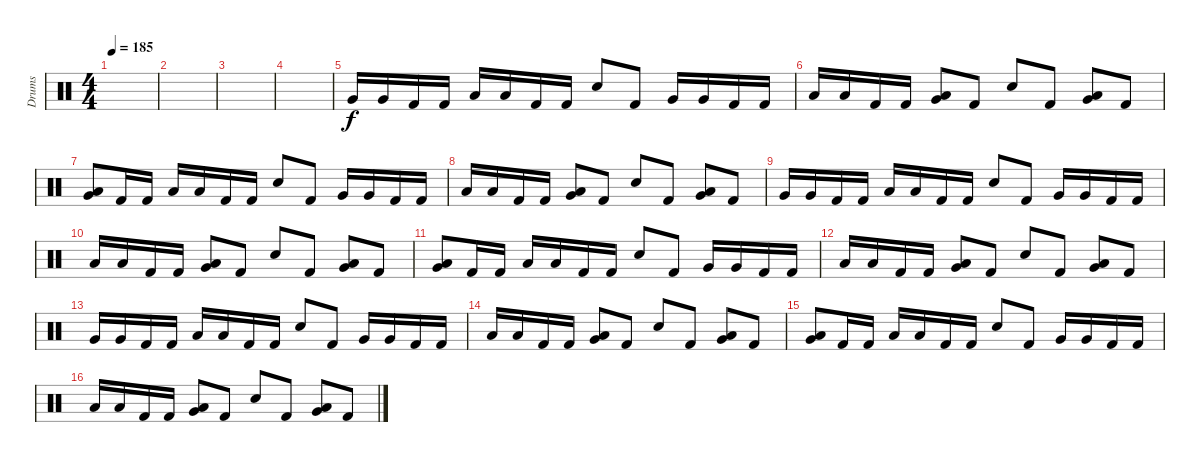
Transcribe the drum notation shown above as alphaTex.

\track ("Drums" "Drums") {instrument percussion}
\staff {score}
\articulation defaults
\ts (4 4)
\tempo 185
\clef neutral
\ks c
|
|
|
|
"Very Low Tom (hit)".16 "Very Low Tom (hit)".16 "Kick (hit) 2".16 "Kick (hit) 2".16 "Low Floor Tom (hit)".16 "Low Floor Tom (hit)".16 "Kick (hit) 2".16 "Kick (hit) 2".16 "Snare (hit) 2".8 "Kick (hit) 2".8 "Very Low Tom (hit)".16 "Very Low Tom (hit)".16 "Kick (hit) 2".16 "Kick (hit) 2".16 |
"Low Floor Tom (hit)".16 "Low Floor Tom (hit)".16 "Kick (hit) 2".16 "Kick (hit) 2".16 ("Very Low Tom (hit)" "Low Floor Tom (hit)").8 "Kick (hit) 2".8 "Snare (hit) 2".8 "Kick (hit) 2".8 ("Low Floor Tom (hit)" "Very Low Tom (hit)").8 "Kick (hit) 2".8 |
("Low Floor Tom (hit)" "Very Low Tom (hit)").8 "Kick (hit) 2".16 "Kick (hit) 2".16 "Low Floor Tom (hit)".16 "Low Floor Tom (hit)".16 "Kick (hit) 2".16 "Kick (hit) 2".16 "Snare (hit) 2".8 "Kick (hit) 2".8 "Very Low Tom (hit)".16 "Very Low Tom (hit)".16 "Kick (hit) 2".16 "Kick (hit) 2".16 |
"Low Floor Tom (hit)".16 "Low Floor Tom (hit)".16 "Kick (hit) 2".16 "Kick (hit) 2".16 ("Very Low Tom (hit)" "Low Floor Tom (hit)").8 "Kick (hit) 2".8 "Snare (hit) 2".8 "Kick (hit) 2".8 ("Low Floor Tom (hit)" "Very Low Tom (hit)").8 "Kick (hit) 2".8 |
"Very Low Tom (hit)".16 "Very Low Tom (hit)".16 "Kick (hit) 2".16 "Kick (hit) 2".16 "Low Floor Tom (hit)".16 "Low Floor Tom (hit)".16 "Kick (hit) 2".16 "Kick (hit) 2".16 "Snare (hit) 2".8 "Kick (hit) 2".8 "Very Low Tom (hit)".16 "Very Low Tom (hit)".16 "Kick (hit) 2".16 "Kick (hit) 2".16 |
"Low Floor Tom (hit)".16 "Low Floor Tom (hit)".16 "Kick (hit) 2".16 "Kick (hit) 2".16 ("Very Low Tom (hit)" "Low Floor Tom (hit)").8 "Kick (hit) 2".8 "Snare (hit) 2".8 "Kick (hit) 2".8 ("Low Floor Tom (hit)" "Very Low Tom (hit)").8 "Kick (hit) 2".8 |
("Low Floor Tom (hit)" "Very Low Tom (hit)").8 "Kick (hit) 2".16 "Kick (hit) 2".16 "Low Floor Tom (hit)".16 "Low Floor Tom (hit)".16 "Kick (hit) 2".16 "Kick (hit) 2".16 "Snare (hit) 2".8 "Kick (hit) 2".8 "Very Low Tom (hit)".16 "Very Low Tom (hit)".16 "Kick (hit) 2".16 "Kick (hit) 2".16 |
"Low Floor Tom (hit)".16 "Low Floor Tom (hit)".16 "Kick (hit) 2".16 "Kick (hit) 2".16 ("Very Low Tom (hit)" "Low Floor Tom (hit)").8 "Kick (hit) 2".8 "Snare (hit) 2".8 "Kick (hit) 2".8 ("Low Floor Tom (hit)" "Very Low Tom (hit)").8 "Kick (hit) 2".8 |
"Very Low Tom (hit)".16 "Very Low Tom (hit)".16 "Kick (hit) 2".16 "Kick (hit) 2".16 "Low Floor Tom (hit)".16 "Low Floor Tom (hit)".16 "Kick (hit) 2".16 "Kick (hit) 2".16 "Snare (hit) 2".8 "Kick (hit) 2".8 "Very Low Tom (hit)".16 "Very Low Tom (hit)".16 "Kick (hit) 2".16 "Kick (hit) 2".16 |
"Low Floor Tom (hit)".16 "Low Floor Tom (hit)".16 "Kick (hit) 2".16 "Kick (hit) 2".16 ("Very Low Tom (hit)" "Low Floor Tom (hit)").8 "Kick (hit) 2".8 "Snare (hit) 2".8 "Kick (hit) 2".8 ("Low Floor Tom (hit)" "Very Low Tom (hit)").8 "Kick (hit) 2".8 |
("Low Floor Tom (hit)" "Very Low Tom (hit)").8 "Kick (hit) 2".16 "Kick (hit) 2".16 "Low Floor Tom (hit)".16 "Low Floor Tom (hit)".16 "Kick (hit) 2".16 "Kick (hit) 2".16 "Snare (hit) 2".8 "Kick (hit) 2".8 "Very Low Tom (hit)".16 "Very Low Tom (hit)".16 "Kick (hit) 2".16 "Kick (hit) 2".16 |
"Low Floor Tom (hit)".16 "Low Floor Tom (hit)".16 "Kick (hit) 2".16 "Kick (hit) 2".16 ("Very Low Tom (hit)" "Low Floor Tom (hit)").8 "Kick (hit) 2".8 "Snare (hit) 2".8 "Kick (hit) 2".8 ("Low Floor Tom (hit)" "Very Low Tom (hit)").8 "Kick (hit) 2".8
